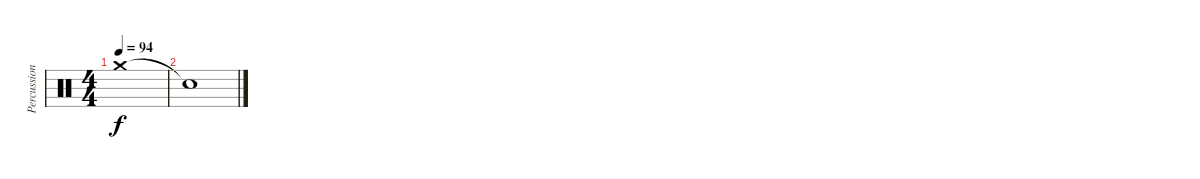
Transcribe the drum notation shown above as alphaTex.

\track ("Percussion" "Percussion") {instrument percussion}
\staff {score}
\articulation defaults
\ts (4 4)
\tempo 94
\clef neutral
\ks c "Crash medium (hit)".1{dy f volume 0}
|
"Snare (hit)"{t}.1
